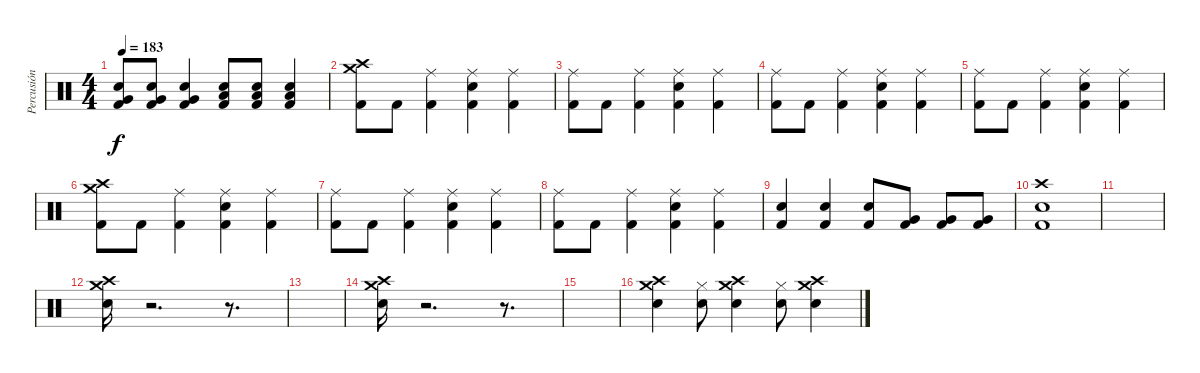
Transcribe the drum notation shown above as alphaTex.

\track ("Percusión" "Percusión") {instrument percussion}
\staff {score}
\articulation defaults
\ts (4 4)
\tempo 183
\clef neutral
\ks c
("Kick (hit) 2" "Electric Snare (hit)" "Very Low Tom (hit)").8{dy f} ("Kick (hit) 2" "Electric Snare (hit)" "Very Low Tom (hit)").8 ("Kick (hit) 2" "Electric Snare (hit)" "Very Low Tom (hit)").4 ("Kick (hit) 2" "Electric Snare (hit)" "Low Floor Tom (hit)").8 ("Kick (hit) 2" "Electric Snare (hit)" "Low Floor Tom (hit)").8 ("Kick (hit) 2" "Electric Snare (hit)" "Low Floor Tom (hit)").4 |
("Kick (hit) 2" "Crash medium (hit)" "Crash high (hit)").8 "Kick (hit) 2".8 ("Kick (hit) 2" "Ride (middle)").4 ("Kick (hit) 2" "Electric Snare (hit)" "Ride (middle)").4 ("Kick (hit) 2" "Ride (middle)").4 |
("Kick (hit) 2" "Ride (middle)").8 "Kick (hit) 2".8 ("Kick (hit) 2" "Ride (middle)").4 ("Kick (hit) 2" "Electric Snare (hit)" "Ride (middle)").4 ("Kick (hit) 2" "Ride (middle)").4 |
("Kick (hit) 2" "Ride (middle)").8 "Kick (hit) 2".8 ("Kick (hit) 2" "Ride (middle)").4 ("Kick (hit) 2" "Electric Snare (hit)" "Ride (middle)").4 ("Kick (hit) 2" "Ride (middle)").4 |
("Kick (hit) 2" "Ride (middle)").8 "Kick (hit) 2".8 ("Kick (hit) 2" "Ride (middle)").4 ("Kick (hit) 2" "Electric Snare (hit)" "Ride (middle)").4 ("Kick (hit) 2" "Ride (middle)").4 |
("Kick (hit) 2" "Crash medium (hit)" "Crash high (hit)").8 "Kick (hit) 2".8 ("Kick (hit) 2" "Ride (middle)").4 ("Kick (hit) 2" "Electric Snare (hit)" "Ride (middle)").4 ("Kick (hit) 2" "Ride (middle)").4 |
("Kick (hit) 2" "Ride (middle)").8 "Kick (hit) 2".8 ("Kick (hit) 2" "Ride (middle)").4 ("Kick (hit) 2" "Electric Snare (hit)" "Ride (middle)").4 ("Kick (hit) 2" "Ride (middle)").4 |
("Kick (hit) 2" "Ride (middle)").8 "Kick (hit) 2".8 ("Kick (hit) 2" "Ride (middle)").4 ("Kick (hit) 2" "Electric Snare (hit)" "Ride (middle)").4 ("Kick (hit) 2" "Ride (middle)").4 |
("Kick (hit) 2" "Electric Snare (hit)").4 ("Kick (hit) 2" "Electric Snare (hit)").4 ("Kick (hit) 2" "Electric Snare (hit)").8 ("Kick (hit) 2" "Very Low Tom (hit)").8 ("Kick (hit) 2" "Very Low Tom (hit)").8 ("Kick (hit) 2" "Very Low Tom (hit)").8 |
("Kick (hit) 2" "Electric Snare (hit)" "Crash high (hit)").1 |
|
("Electric Snare (hit)" "Crash medium (hit)" "Crash high (hit)").16 r.2{d} r.8{d} |
|
("Electric Snare (hit)" "Crash medium (hit)" "Crash high (hit)").16 r.2{d} r.8{d} |
|
("Electric Snare (hit)" "Crash medium (hit)" "Crash high (hit)").4 ("Electric Snare (hit)" "Hi-Hat (closed)").8 ("Electric Snare (hit)" "Crash medium (hit)" "Crash high (hit)").4 ("Electric Snare (hit)" "Hi-Hat (closed)").8 ("Electric Snare (hit)" "Crash medium (hit)" "Crash high (hit)").4
